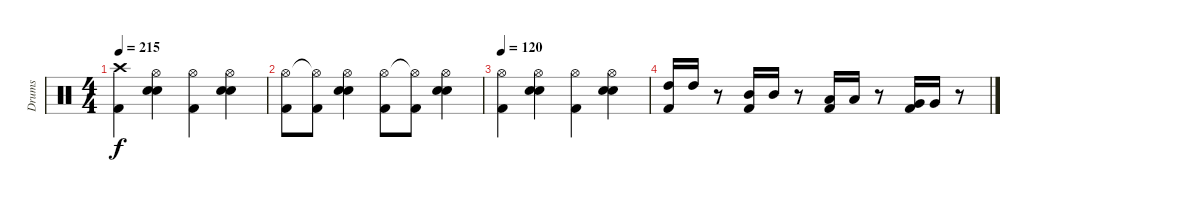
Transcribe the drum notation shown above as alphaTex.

\track ("Drums" "Drums") {instrument percussion}
\staff {score}
\articulation defaults
\ts (4 4)
\tempo 215
\clef neutral
\ks c
("Crash high (hit)" "Kick (hit) 2").4{dy f} ("Hi-Hat (open)" "Electric Snare (hit)" "Electric Snare (hit)").4 ("Hi-Hat (open)" "Kick (hit) 2").4 ("Hi-Hat (open)" "Electric Snare (hit)" "Electric Snare (hit)").4 |
("Hi-Hat (open)" "Kick (hit) 2").8 ("Hi-Hat (open)"{t} "Kick (hit) 2").8 ("Hi-Hat (open)" "Electric Snare (hit)" "Electric Snare (hit)").4 ("Hi-Hat (open)" "Kick (hit) 2").8 ("Hi-Hat (open)"{t} "Kick (hit) 2").8 ("Hi-Hat (open)" "Electric Snare (hit)" "Electric Snare (hit)").4 |
\tempo 120
("Hi-Hat (open)" "Kick (hit) 2").4 ("Hi-Hat (open)" "Electric Snare (hit)" "Electric Snare (hit)").4 ("Hi-Hat (open)" "Kick (hit) 2").4 ("Hi-Hat (open)" "Electric Snare (hit)" "Electric Snare (hit)").4 |
("Kick (hit) 2" "High Tom (hit)").16 "High Tom (hit)".16 r.8 ("Kick (hit) 2" "Mid Tom (hit)").16 "Mid Tom (hit)".16 r.8 ("Kick (hit) 2" "Low Tom (hit)").16 "Low Tom (hit)".16 r.8 ("Kick (hit) 2" "Very Low Tom (hit)").16 "Very Low Tom (hit)".16 r.8
